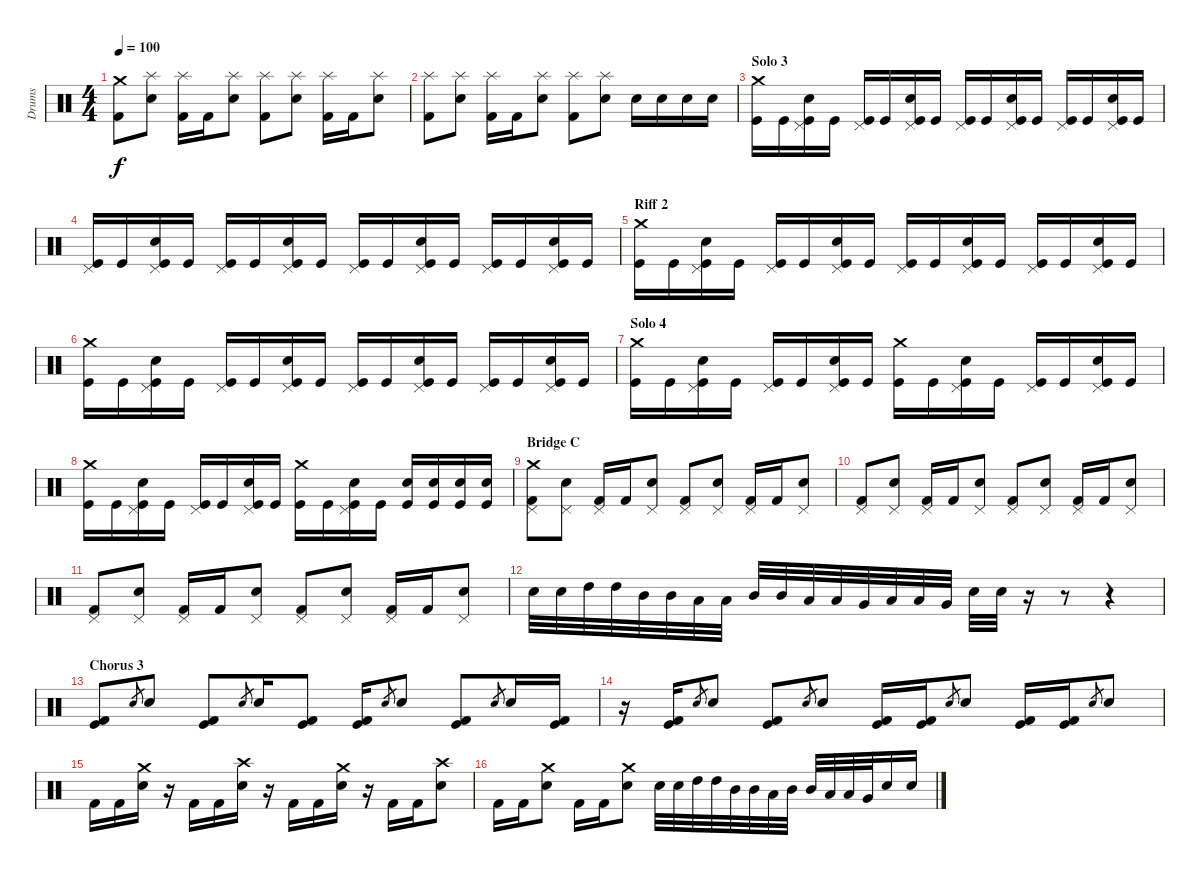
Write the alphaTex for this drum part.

\track ("Drums" "Drums") {instrument percussion}
\staff {score}
\articulation defaults
\ts (4 4)
\tempo 100
\clef neutral
\ks c
("Crash medium (hit)" "Kick (hit) 2").8{dy f} ("Splash (hit)" "Electric Snare (hit)").8 ("Splash (hit)" "Kick (hit) 2").16 "Kick (hit) 2".16 ("Splash (hit)" "Electric Snare (hit)").8 ("Splash (hit)" "Kick (hit) 2").8 ("Splash (hit)" "Electric Snare (hit)").8 ("Splash (hit)" "Kick (hit) 2").16 "Kick (hit) 2".16 ("Splash (hit)" "Electric Snare (hit)").8 |
("Splash (hit)" "Kick (hit) 2").8 ("Splash (hit)" "Electric Snare (hit)").8 ("Splash (hit)" "Kick (hit) 2").16 "Kick (hit) 2".16 ("Splash (hit)" "Electric Snare (hit)").8 ("Splash (hit)" "Kick (hit) 2").8 ("Splash (hit)" "Electric Snare (hit)").8 "Electric Snare (hit)".16 "Electric Snare (hit)".16 "Electric Snare (hit)".16 "Electric Snare (hit)".16 |
\section ("" "Solo 3 ")
("Crash medium (hit)" "Kick (hit)").16 "Kick (hit)".16 ("Pedal Hi-Hat (hit)" "Electric Snare (hit)" "Kick (hit)").16 "Kick (hit)".16 ("Pedal Hi-Hat (hit)" "Kick (hit)").16 "Kick (hit)".16 ("Pedal Hi-Hat (hit)" "Electric Snare (hit)" "Kick (hit)").16 "Kick (hit)".16 ("Pedal Hi-Hat (hit)" "Kick (hit)").16 "Kick (hit)".16 ("Pedal Hi-Hat (hit)" "Electric Snare (hit)" "Kick (hit)").16 "Kick (hit)".16 ("Pedal Hi-Hat (hit)" "Kick (hit)").16 "Kick (hit)".16 ("Pedal Hi-Hat (hit)" "Electric Snare (hit)" "Kick (hit)").16 "Kick (hit)".16 |
("Pedal Hi-Hat (hit)" "Kick (hit)").16 "Kick (hit)".16 ("Pedal Hi-Hat (hit)" "Electric Snare (hit)" "Kick (hit)").16 "Kick (hit)".16 ("Pedal Hi-Hat (hit)" "Kick (hit)").16 "Kick (hit)".16 ("Pedal Hi-Hat (hit)" "Electric Snare (hit)" "Kick (hit)").16 "Kick (hit)".16 ("Pedal Hi-Hat (hit)" "Kick (hit)").16 "Kick (hit)".16 ("Pedal Hi-Hat (hit)" "Electric Snare (hit)" "Kick (hit)").16 "Kick (hit)".16 ("Pedal Hi-Hat (hit)" "Kick (hit)").16 "Kick (hit)".16 ("Pedal Hi-Hat (hit)" "Electric Snare (hit)" "Kick (hit)").16 "Kick (hit)".16 |
\section ("" "Riff 2")
("Crash medium (hit)" "Kick (hit)").16 "Kick (hit)".16 ("Pedal Hi-Hat (hit)" "Electric Snare (hit)" "Kick (hit)").16 "Kick (hit)".16 ("Pedal Hi-Hat (hit)" "Kick (hit)").16 "Kick (hit)".16 ("Pedal Hi-Hat (hit)" "Electric Snare (hit)" "Kick (hit)").16 "Kick (hit)".16 ("Pedal Hi-Hat (hit)" "Kick (hit)").16 "Kick (hit)".16 ("Pedal Hi-Hat (hit)" "Electric Snare (hit)" "Kick (hit)").16 "Kick (hit)".16 ("Pedal Hi-Hat (hit)" "Kick (hit)").16 "Kick (hit)".16 ("Pedal Hi-Hat (hit)" "Electric Snare (hit)" "Kick (hit)").16 "Kick (hit)".16 |
("Crash medium (hit)" "Kick (hit)").16 "Kick (hit)".16 ("Pedal Hi-Hat (hit)" "Electric Snare (hit)" "Kick (hit)").16 "Kick (hit)".16 ("Pedal Hi-Hat (hit)" "Kick (hit)").16 "Kick (hit)".16 ("Pedal Hi-Hat (hit)" "Electric Snare (hit)" "Kick (hit)").16 "Kick (hit)".16 ("Pedal Hi-Hat (hit)" "Kick (hit)").16 "Kick (hit)".16 ("Pedal Hi-Hat (hit)" "Electric Snare (hit)" "Kick (hit)").16 "Kick (hit)".16 ("Pedal Hi-Hat (hit)" "Kick (hit)").16 "Kick (hit)".16 ("Pedal Hi-Hat (hit)" "Electric Snare (hit)" "Kick (hit)").16 "Kick (hit)".16 |
\section ("" "Solo 4")
("Crash medium (hit)" "Kick (hit)").16 "Kick (hit)".16 ("Pedal Hi-Hat (hit)" "Electric Snare (hit)" "Kick (hit)").16 "Kick (hit)".16 ("Pedal Hi-Hat (hit)" "Kick (hit)").16 "Kick (hit)".16 ("Pedal Hi-Hat (hit)" "Electric Snare (hit)" "Kick (hit)").16 "Kick (hit)".16 ("Crash medium (hit)" "Kick (hit)").16 "Kick (hit)".16 ("Pedal Hi-Hat (hit)" "Electric Snare (hit)" "Kick (hit)").16 "Kick (hit)".16 ("Pedal Hi-Hat (hit)" "Kick (hit)").16 "Kick (hit)".16 ("Pedal Hi-Hat (hit)" "Electric Snare (hit)" "Kick (hit)").16 "Kick (hit)".16 |
("Crash medium (hit)" "Kick (hit)").16 "Kick (hit)".16 ("Pedal Hi-Hat (hit)" "Electric Snare (hit)" "Kick (hit)").16 "Kick (hit)".16 ("Pedal Hi-Hat (hit)" "Kick (hit)").16 "Kick (hit)".16 ("Pedal Hi-Hat (hit)" "Electric Snare (hit)" "Kick (hit)").16 "Kick (hit)".16 ("Crash medium (hit)" "Kick (hit)").16 "Kick (hit)".16 ("Pedal Hi-Hat (hit)" "Electric Snare (hit)" "Kick (hit)").16 "Kick (hit)".16 ("Electric Snare (hit)" "Kick (hit)").16 ("Electric Snare (hit)" "Kick (hit)").16 ("Electric Snare (hit)" "Kick (hit)").16 ("Electric Snare (hit)" "Kick (hit)").16 |
\section ("" "Bridge C")
("Pedal Hi-Hat (hit)" "Crash medium (hit)" "Kick (hit) 2").8 ("Pedal Hi-Hat (hit)" "Electric Snare (hit)").8 ("Pedal Hi-Hat (hit)" "Kick (hit) 2").16 "Kick (hit) 2".16 ("Pedal Hi-Hat (hit)" "Electric Snare (hit)").8 ("Pedal Hi-Hat (hit)" "Kick (hit) 2").8 ("Pedal Hi-Hat (hit)" "Electric Snare (hit)").8 ("Pedal Hi-Hat (hit)" "Kick (hit) 2").16 "Kick (hit) 2".16 ("Pedal Hi-Hat (hit)" "Electric Snare (hit)").8 |
("Pedal Hi-Hat (hit)" "Kick (hit) 2").8 ("Pedal Hi-Hat (hit)" "Electric Snare (hit)").8 ("Pedal Hi-Hat (hit)" "Kick (hit) 2").16 "Kick (hit) 2".16 ("Pedal Hi-Hat (hit)" "Electric Snare (hit)").8 ("Pedal Hi-Hat (hit)" "Kick (hit) 2").8 ("Pedal Hi-Hat (hit)" "Electric Snare (hit)").8 ("Pedal Hi-Hat (hit)" "Kick (hit) 2").16 "Kick (hit) 2".16 ("Pedal Hi-Hat (hit)" "Electric Snare (hit)").8 |
("Pedal Hi-Hat (hit)" "Kick (hit) 2").8 ("Pedal Hi-Hat (hit)" "Electric Snare (hit)").8 ("Pedal Hi-Hat (hit)" "Kick (hit) 2").16 "Kick (hit) 2".16 ("Pedal Hi-Hat (hit)" "Electric Snare (hit)").8 ("Pedal Hi-Hat (hit)" "Kick (hit) 2").8 ("Pedal Hi-Hat (hit)" "Electric Snare (hit)").8 ("Pedal Hi-Hat (hit)" "Kick (hit) 2").16 "Kick (hit) 2".16 ("Pedal Hi-Hat (hit)" "Electric Snare (hit)").8 |
"Electric Snare (hit)".32 "Electric Snare (hit)".32 "High Tom (hit)".32 "High Tom (hit)".32 "Mid Tom (hit)".32 "Mid Tom (hit)".32 "Low Tom (hit)".32 "Low Tom (hit)".32 "Mid Tom (hit)".32 "Mid Tom (hit)".32 "Low Tom (hit)".32 "Low Tom (hit)".32 "Very Low Tom (hit)".32 "Low Tom (hit)".32 "Low Tom (hit)".32 "Very Low Tom (hit)".32 "Electric Snare (hit)".32 "Electric Snare (hit)".32 r.16 r.8 r.4 |
\section ("" "Chorus 3")
("Kick (hit) 2" "Kick (hit)").8 "Electric Snare (hit)".8{gr} "Electric Snare (hit)".8 ("Kick (hit) 2" "Kick (hit)").8 "Electric Snare (hit)".8{gr} "Electric Snare (hit)".16 ("Kick (hit) 2" "Kick (hit)").8 ("Kick (hit) 2" "Kick (hit)").16 "Electric Snare (hit)".8{gr} "Electric Snare (hit)".8 ("Kick (hit) 2" "Kick (hit)").8 "Electric Snare (hit)".8{gr} "Electric Snare (hit)".16 ("Kick (hit) 2" "Kick (hit)").16 |
r.16 ("Kick (hit) 2" "Kick (hit)").16 "Electric Snare (hit)".8{gr} "Electric Snare (hit)".8 ("Kick (hit) 2" "Kick (hit)").8 "Electric Snare (hit)".8{gr} "Electric Snare (hit)".8 ("Kick (hit) 2" "Kick (hit)").16 ("Kick (hit) 2" "Kick (hit)").16 "Electric Snare (hit)".8{gr} "Electric Snare (hit)".8 ("Kick (hit) 2" "Kick (hit)").16 ("Kick (hit) 2" "Kick (hit)").16 "Electric Snare (hit)".8{gr} "Electric Snare (hit)".8 |
"Kick (hit) 2".16 "Kick (hit) 2".16 ("Crash medium (hit)" "Electric Snare (hit)").16 r.16 "Kick (hit) 2".16 "Kick (hit) 2".16 ("Crash high (hit)" "Electric Snare (hit)").16 r.16 "Kick (hit) 2".16 "Kick (hit) 2".16 ("Crash medium (hit)" "Electric Snare (hit)").16 r.16 "Kick (hit) 2".16 "Kick (hit) 2".16 ("Crash high (hit)" "Electric Snare (hit)").8 |
"Kick (hit) 2".16 "Kick (hit) 2".16 ("Crash medium (hit)" "Electric Snare (hit)").8 "Kick (hit) 2".16 "Kick (hit) 2".16 ("Crash medium (hit)" "Electric Snare (hit)").8 "Electric Snare (hit)".32 "Electric Snare (hit)".32 "High Tom (hit)".32 "High Tom (hit)".32 "Mid Tom (hit)".32 "Mid Tom (hit)".32 "Low Tom (hit)".32 "Mid Tom (hit)".32 "Mid Tom (hit)".32 "Low Tom (hit)".32 "Low Tom (hit)".32 "Very Low Tom (hit)".32 "Electric Snare (hit)".16 "Electric Snare (hit)".16
